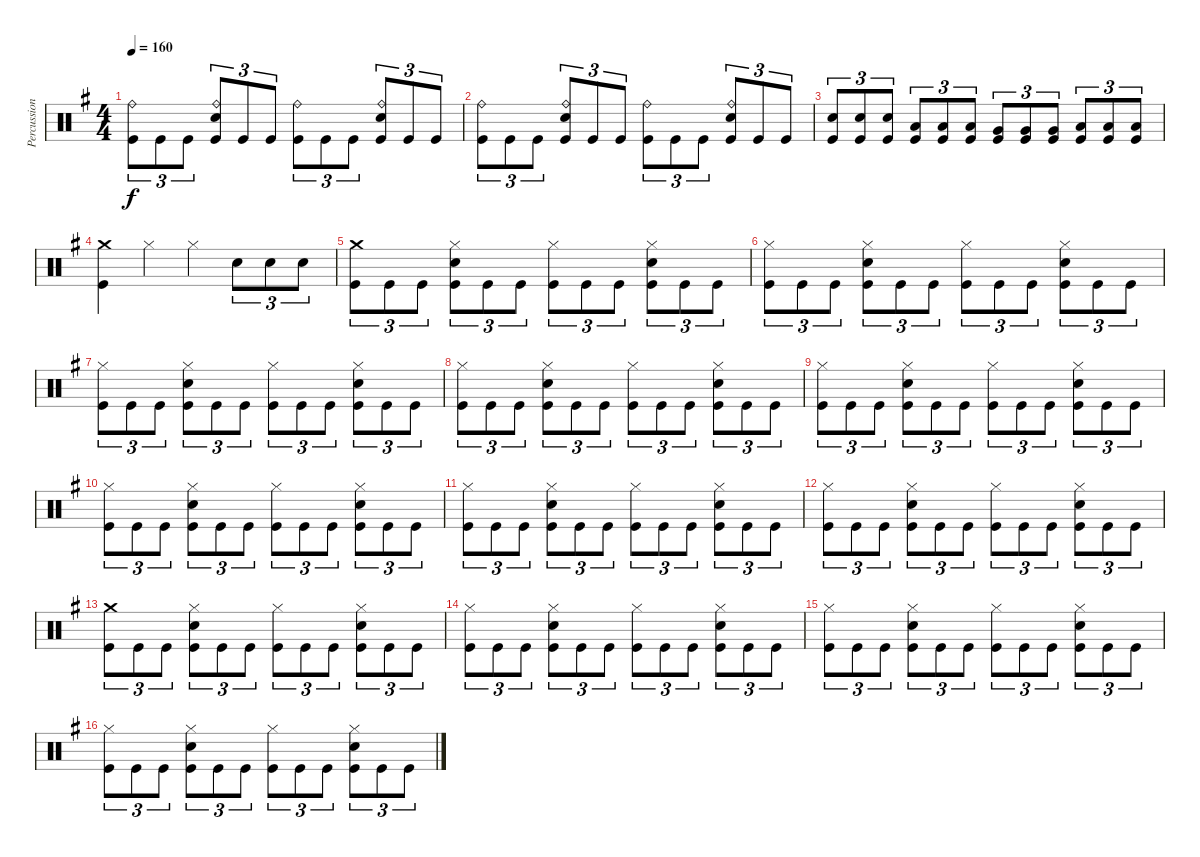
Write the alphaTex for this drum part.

\track ("Percussions" "Percussion") {instrument percussion}
\staff {score}
\articulation defaults
\ts (4 4)
\tempo 160
\clef neutral
\ks g
("Kick (hit)" "Ride (bell)").8{tu (3 2) dy f} "Kick (hit)".8{tu (3 2)} "Kick (hit)".8{tu (3 2)} ("Kick (hit)" "Electric Snare (hit)" "Ride (bell)").8{tu (3 2)} "Kick (hit)".8{tu (3 2)} "Kick (hit)".8{tu (3 2)} ("Kick (hit)" "Ride (bell)").8{tu (3 2)} "Kick (hit)".8{tu (3 2)} "Kick (hit)".8{tu (3 2)} ("Kick (hit)" "Electric Snare (hit)" "Ride (bell)").8{tu (3 2)} "Kick (hit)".8{tu (3 2)} "Kick (hit)".8{tu (3 2)} |
("Kick (hit)" "Ride (bell)").8{tu (3 2)} "Kick (hit)".8{tu (3 2)} "Kick (hit)".8{tu (3 2)} ("Kick (hit)" "Electric Snare (hit)" "Ride (bell)").8{tu (3 2)} "Kick (hit)".8{tu (3 2)} "Kick (hit)".8{tu (3 2)} ("Kick (hit)" "Ride (bell)").8{tu (3 2)} "Kick (hit)".8{tu (3 2)} "Kick (hit)".8{tu (3 2)} ("Kick (hit)" "Electric Snare (hit)" "Ride (bell)").8{tu (3 2)} "Kick (hit)".8{tu (3 2)} "Kick (hit)".8{tu (3 2)} |
("Kick (hit)" "Electric Snare (hit)").8{tu (3 2)} ("Kick (hit)" "Electric Snare (hit)").8{tu (3 2)} ("Kick (hit)" "Electric Snare (hit)").8{tu (3 2)} ("Kick (hit)" "Low Tom (hit)").8{tu (3 2)} ("Kick (hit)" "Low Tom (hit)").8{tu (3 2)} ("Kick (hit)" "Low Tom (hit)").8{tu (3 2)} ("Kick (hit)" "Very Low Tom (hit)").8{tu (3 2)} ("Kick (hit)" "Very Low Tom (hit)").8{tu (3 2)} ("Kick (hit)" "Very Low Tom (hit)").8{tu (3 2)} ("Kick (hit)" "Low Floor Tom (hit)").8{tu (3 2)} ("Kick (hit)" "Low Floor Tom (hit)").8{tu (3 2)} ("Kick (hit)" "Low Floor Tom (hit)").8{tu (3 2)} |
("Kick (hit)" "Crash medium (hit)").4 "Hi-Hat (closed)".4 "Hi-Hat (closed)".4 "Electric Snare (hit)".8{tu (3 2)} "Electric Snare (hit)".8{tu (3 2)} "Electric Snare (hit)".8{tu (3 2)} |
("Kick (hit)" "Crash medium (hit)").8{tu (3 2)} "Kick (hit)".8{tu (3 2)} "Kick (hit)".8{tu (3 2)} ("Kick (hit)" "Electric Snare (hit)" "Hi-Hat (closed)").8{tu (3 2)} "Kick (hit)".8{tu (3 2)} "Kick (hit)".8{tu (3 2)} ("Kick (hit)" "Hi-Hat (closed)").8{tu (3 2)} "Kick (hit)".8{tu (3 2)} "Kick (hit)".8{tu (3 2)} ("Kick (hit)" "Electric Snare (hit)" "Hi-Hat (closed)").8{tu (3 2)} "Kick (hit)".8{tu (3 2)} "Kick (hit)".8{tu (3 2)} |
("Kick (hit)" "Hi-Hat (closed)").8{tu (3 2)} "Kick (hit)".8{tu (3 2)} "Kick (hit)".8{tu (3 2)} ("Kick (hit)" "Electric Snare (hit)" "Hi-Hat (closed)").8{tu (3 2)} "Kick (hit)".8{tu (3 2)} "Kick (hit)".8{tu (3 2)} ("Kick (hit)" "Hi-Hat (closed)").8{tu (3 2)} "Kick (hit)".8{tu (3 2)} "Kick (hit)".8{tu (3 2)} ("Kick (hit)" "Electric Snare (hit)" "Hi-Hat (closed)").8{tu (3 2)} "Kick (hit)".8{tu (3 2)} "Kick (hit)".8{tu (3 2)} |
("Kick (hit)" "Hi-Hat (closed)").8{tu (3 2)} "Kick (hit)".8{tu (3 2)} "Kick (hit)".8{tu (3 2)} ("Kick (hit)" "Electric Snare (hit)" "Hi-Hat (closed)").8{tu (3 2)} "Kick (hit)".8{tu (3 2)} "Kick (hit)".8{tu (3 2)} ("Kick (hit)" "Hi-Hat (closed)").8{tu (3 2)} "Kick (hit)".8{tu (3 2)} "Kick (hit)".8{tu (3 2)} ("Kick (hit)" "Electric Snare (hit)" "Hi-Hat (closed)").8{tu (3 2)} "Kick (hit)".8{tu (3 2)} "Kick (hit)".8{tu (3 2)} |
("Kick (hit)" "Hi-Hat (closed)").8{tu (3 2)} "Kick (hit)".8{tu (3 2)} "Kick (hit)".8{tu (3 2)} ("Kick (hit)" "Electric Snare (hit)" "Hi-Hat (closed)").8{tu (3 2)} "Kick (hit)".8{tu (3 2)} "Kick (hit)".8{tu (3 2)} ("Kick (hit)" "Hi-Hat (closed)").8{tu (3 2)} "Kick (hit)".8{tu (3 2)} "Kick (hit)".8{tu (3 2)} ("Kick (hit)" "Electric Snare (hit)" "Hi-Hat (closed)").8{tu (3 2)} "Kick (hit)".8{tu (3 2)} "Kick (hit)".8{tu (3 2)} |
("Kick (hit)" "Hi-Hat (closed)").8{tu (3 2)} "Kick (hit)".8{tu (3 2)} "Kick (hit)".8{tu (3 2)} ("Kick (hit)" "Electric Snare (hit)" "Hi-Hat (closed)").8{tu (3 2)} "Kick (hit)".8{tu (3 2)} "Kick (hit)".8{tu (3 2)} ("Kick (hit)" "Hi-Hat (closed)").8{tu (3 2)} "Kick (hit)".8{tu (3 2)} "Kick (hit)".8{tu (3 2)} ("Kick (hit)" "Electric Snare (hit)" "Hi-Hat (closed)").8{tu (3 2)} "Kick (hit)".8{tu (3 2)} "Kick (hit)".8{tu (3 2)} |
("Kick (hit)" "Hi-Hat (closed)").8{tu (3 2)} "Kick (hit)".8{tu (3 2)} "Kick (hit)".8{tu (3 2)} ("Kick (hit)" "Electric Snare (hit)" "Hi-Hat (closed)").8{tu (3 2)} "Kick (hit)".8{tu (3 2)} "Kick (hit)".8{tu (3 2)} ("Kick (hit)" "Hi-Hat (closed)").8{tu (3 2)} "Kick (hit)".8{tu (3 2)} "Kick (hit)".8{tu (3 2)} ("Kick (hit)" "Electric Snare (hit)" "Hi-Hat (closed)").8{tu (3 2)} "Kick (hit)".8{tu (3 2)} "Kick (hit)".8{tu (3 2)} |
("Kick (hit)" "Hi-Hat (closed)").8{tu (3 2)} "Kick (hit)".8{tu (3 2)} "Kick (hit)".8{tu (3 2)} ("Kick (hit)" "Electric Snare (hit)" "Hi-Hat (closed)").8{tu (3 2)} "Kick (hit)".8{tu (3 2)} "Kick (hit)".8{tu (3 2)} ("Kick (hit)" "Hi-Hat (closed)").8{tu (3 2)} "Kick (hit)".8{tu (3 2)} "Kick (hit)".8{tu (3 2)} ("Kick (hit)" "Electric Snare (hit)" "Hi-Hat (closed)").8{tu (3 2)} "Kick (hit)".8{tu (3 2)} "Kick (hit)".8{tu (3 2)} |
("Kick (hit)" "Hi-Hat (closed)").8{tu (3 2)} "Kick (hit)".8{tu (3 2)} "Kick (hit)".8{tu (3 2)} ("Kick (hit)" "Electric Snare (hit)" "Hi-Hat (closed)").8{tu (3 2)} "Kick (hit)".8{tu (3 2)} "Kick (hit)".8{tu (3 2)} ("Kick (hit)" "Hi-Hat (closed)").8{tu (3 2)} "Kick (hit)".8{tu (3 2)} "Kick (hit)".8{tu (3 2)} ("Kick (hit)" "Electric Snare (hit)" "Hi-Hat (closed)").8{tu (3 2)} "Kick (hit)".8{tu (3 2)} "Kick (hit)".8{tu (3 2)} |
("Kick (hit)" "Crash medium (hit)").8{tu (3 2)} "Kick (hit)".8{tu (3 2)} "Kick (hit)".8{tu (3 2)} ("Kick (hit)" "Electric Snare (hit)" "Hi-Hat (closed)").8{tu (3 2)} "Kick (hit)".8{tu (3 2)} "Kick (hit)".8{tu (3 2)} ("Kick (hit)" "Hi-Hat (closed)").8{tu (3 2)} "Kick (hit)".8{tu (3 2)} "Kick (hit)".8{tu (3 2)} ("Kick (hit)" "Electric Snare (hit)" "Hi-Hat (closed)").8{tu (3 2)} "Kick (hit)".8{tu (3 2)} "Kick (hit)".8{tu (3 2)} |
("Kick (hit)" "Hi-Hat (closed)").8{tu (3 2)} "Kick (hit)".8{tu (3 2)} "Kick (hit)".8{tu (3 2)} ("Kick (hit)" "Electric Snare (hit)" "Hi-Hat (closed)").8{tu (3 2)} "Kick (hit)".8{tu (3 2)} "Kick (hit)".8{tu (3 2)} ("Kick (hit)" "Hi-Hat (closed)").8{tu (3 2)} "Kick (hit)".8{tu (3 2)} "Kick (hit)".8{tu (3 2)} ("Kick (hit)" "Electric Snare (hit)" "Hi-Hat (closed)").8{tu (3 2)} "Kick (hit)".8{tu (3 2)} "Kick (hit)".8{tu (3 2)} |
("Kick (hit)" "Hi-Hat (closed)").8{tu (3 2)} "Kick (hit)".8{tu (3 2)} "Kick (hit)".8{tu (3 2)} ("Kick (hit)" "Electric Snare (hit)" "Hi-Hat (closed)").8{tu (3 2)} "Kick (hit)".8{tu (3 2)} "Kick (hit)".8{tu (3 2)} ("Kick (hit)" "Hi-Hat (closed)").8{tu (3 2)} "Kick (hit)".8{tu (3 2)} "Kick (hit)".8{tu (3 2)} ("Kick (hit)" "Electric Snare (hit)" "Hi-Hat (closed)").8{tu (3 2)} "Kick (hit)".8{tu (3 2)} "Kick (hit)".8{tu (3 2)} |
("Kick (hit)" "Hi-Hat (closed)").8{tu (3 2)} "Kick (hit)".8{tu (3 2)} "Kick (hit)".8{tu (3 2)} ("Kick (hit)" "Electric Snare (hit)" "Hi-Hat (closed)").8{tu (3 2)} "Kick (hit)".8{tu (3 2)} "Kick (hit)".8{tu (3 2)} ("Kick (hit)" "Hi-Hat (closed)").8{tu (3 2)} "Kick (hit)".8{tu (3 2)} "Kick (hit)".8{tu (3 2)} ("Kick (hit)" "Electric Snare (hit)" "Hi-Hat (closed)").8{tu (3 2)} "Kick (hit)".8{tu (3 2)} "Kick (hit)".8{tu (3 2)}
